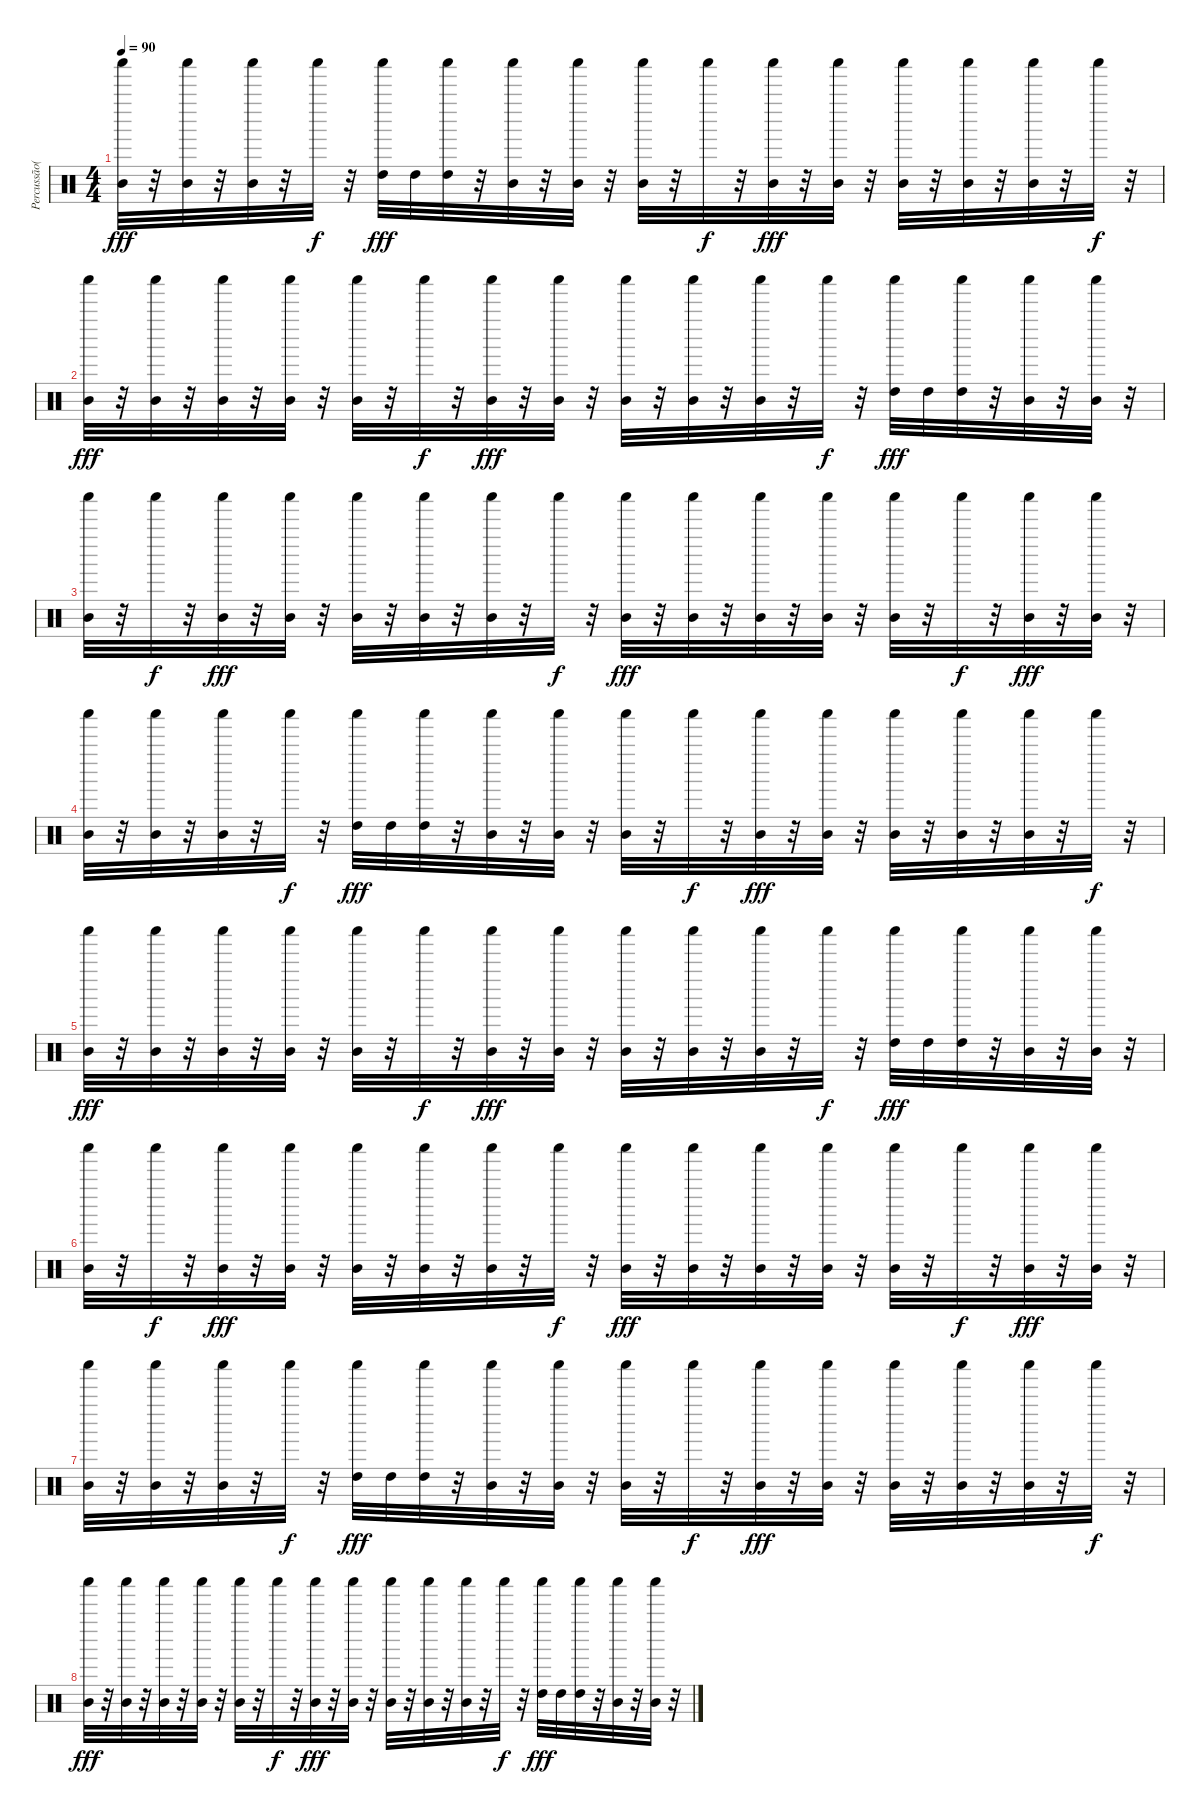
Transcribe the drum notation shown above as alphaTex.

\track ("Percussão(Percussion)-1" "Percussão(") {instrument percussion}
\staff {score}
\articulation defaults
\ts (4 4)
\tempo 90
\clef neutral
\ks c
("Mid Tom (hit)" "Shaker (hit)").32{dy fff} r.32 ("Mid Tom (hit)" "Shaker (hit)").32 r.32 ("Mid Tom (hit)" "Shaker (hit)").32 r.32 "Shaker (hit)".32{dy f} r.32 ("High Tom (hit)" "Shaker (hit)").32{dy fff} "High Tom (hit)".32 ("High Tom (hit)" "Shaker (hit)").32 r.32 ("Mid Tom (hit)" "Shaker (hit)").32 r.32 ("Mid Tom (hit)" "Shaker (hit)").32 r.32 ("Mid Tom (hit)" "Shaker (hit)").32 r.32 "Shaker (hit)".32{dy f} r.32 ("Mid Tom (hit)" "Shaker (hit)").32{dy fff} r.32 ("Mid Tom (hit)" "Shaker (hit)").32 r.32 ("Mid Tom (hit)" "Shaker (hit)").32 r.32 ("Mid Tom (hit)" "Shaker (hit)").32 r.32 ("Mid Tom (hit)" "Shaker (hit)").32 r.32 "Shaker (hit)".32{dy f} r.32 |
("Mid Tom (hit)" "Shaker (hit)").32{dy fff} r.32 ("Mid Tom (hit)" "Shaker (hit)").32 r.32 ("Mid Tom (hit)" "Shaker (hit)").32 r.32 ("Mid Tom (hit)" "Shaker (hit)").32 r.32 ("Mid Tom (hit)" "Shaker (hit)").32 r.32 "Shaker (hit)".32{dy f} r.32 ("Mid Tom (hit)" "Shaker (hit)").32{dy fff} r.32 ("Mid Tom (hit)" "Shaker (hit)").32 r.32 ("Mid Tom (hit)" "Shaker (hit)").32 r.32 ("Mid Tom (hit)" "Shaker (hit)").32 r.32 ("Mid Tom (hit)" "Shaker (hit)").32 r.32 "Shaker (hit)".32{dy f} r.32 ("High Tom (hit)" "Shaker (hit)").32{dy fff} "High Tom (hit)".32 ("High Tom (hit)" "Shaker (hit)").32 r.32 ("Mid Tom (hit)" "Shaker (hit)").32 r.32 ("Mid Tom (hit)" "Shaker (hit)").32 r.32 |
("Mid Tom (hit)" "Shaker (hit)").32 r.32 "Shaker (hit)".32{dy f} r.32 ("Mid Tom (hit)" "Shaker (hit)").32{dy fff} r.32 ("Mid Tom (hit)" "Shaker (hit)").32 r.32 ("Mid Tom (hit)" "Shaker (hit)").32 r.32 ("Mid Tom (hit)" "Shaker (hit)").32 r.32 ("Mid Tom (hit)" "Shaker (hit)").32 r.32 "Shaker (hit)".32{dy f} r.32 ("Mid Tom (hit)" "Shaker (hit)").32{dy fff} r.32 ("Mid Tom (hit)" "Shaker (hit)").32 r.32 ("Mid Tom (hit)" "Shaker (hit)").32 r.32 ("Mid Tom (hit)" "Shaker (hit)").32 r.32 ("Mid Tom (hit)" "Shaker (hit)").32 r.32 "Shaker (hit)".32{dy f} r.32 ("Mid Tom (hit)" "Shaker (hit)").32{dy fff} r.32 ("Mid Tom (hit)" "Shaker (hit)").32 r.32 |
("Mid Tom (hit)" "Shaker (hit)").32 r.32 ("Mid Tom (hit)" "Shaker (hit)").32 r.32 ("Mid Tom (hit)" "Shaker (hit)").32 r.32 "Shaker (hit)".32{dy f} r.32 ("High Tom (hit)" "Shaker (hit)").32{dy fff} "High Tom (hit)".32 ("High Tom (hit)" "Shaker (hit)").32 r.32 ("Mid Tom (hit)" "Shaker (hit)").32 r.32 ("Mid Tom (hit)" "Shaker (hit)").32 r.32 ("Mid Tom (hit)" "Shaker (hit)").32 r.32 "Shaker (hit)".32{dy f} r.32 ("Mid Tom (hit)" "Shaker (hit)").32{dy fff} r.32 ("Mid Tom (hit)" "Shaker (hit)").32 r.32 ("Mid Tom (hit)" "Shaker (hit)").32 r.32 ("Mid Tom (hit)" "Shaker (hit)").32 r.32 ("Mid Tom (hit)" "Shaker (hit)").32 r.32 "Shaker (hit)".32{dy f} r.32 |
("Mid Tom (hit)" "Shaker (hit)").32{dy fff} r.32 ("Mid Tom (hit)" "Shaker (hit)").32 r.32 ("Mid Tom (hit)" "Shaker (hit)").32 r.32 ("Mid Tom (hit)" "Shaker (hit)").32 r.32 ("Mid Tom (hit)" "Shaker (hit)").32 r.32 "Shaker (hit)".32{dy f} r.32 ("Mid Tom (hit)" "Shaker (hit)").32{dy fff} r.32 ("Mid Tom (hit)" "Shaker (hit)").32 r.32 ("Mid Tom (hit)" "Shaker (hit)").32 r.32 ("Mid Tom (hit)" "Shaker (hit)").32 r.32 ("Mid Tom (hit)" "Shaker (hit)").32 r.32 "Shaker (hit)".32{dy f} r.32 ("High Tom (hit)" "Shaker (hit)").32{dy fff} "High Tom (hit)".32 ("High Tom (hit)" "Shaker (hit)").32 r.32 ("Mid Tom (hit)" "Shaker (hit)").32 r.32 ("Mid Tom (hit)" "Shaker (hit)").32 r.32 |
("Mid Tom (hit)" "Shaker (hit)").32 r.32 "Shaker (hit)".32{dy f} r.32 ("Mid Tom (hit)" "Shaker (hit)").32{dy fff} r.32 ("Mid Tom (hit)" "Shaker (hit)").32 r.32 ("Mid Tom (hit)" "Shaker (hit)").32 r.32 ("Mid Tom (hit)" "Shaker (hit)").32 r.32 ("Mid Tom (hit)" "Shaker (hit)").32 r.32 "Shaker (hit)".32{dy f} r.32 ("Mid Tom (hit)" "Shaker (hit)").32{dy fff} r.32 ("Mid Tom (hit)" "Shaker (hit)").32 r.32 ("Mid Tom (hit)" "Shaker (hit)").32 r.32 ("Mid Tom (hit)" "Shaker (hit)").32 r.32 ("Mid Tom (hit)" "Shaker (hit)").32 r.32 "Shaker (hit)".32{dy f} r.32 ("Mid Tom (hit)" "Shaker (hit)").32{dy fff} r.32 ("Mid Tom (hit)" "Shaker (hit)").32 r.32 |
("Mid Tom (hit)" "Shaker (hit)").32 r.32 ("Mid Tom (hit)" "Shaker (hit)").32 r.32 ("Mid Tom (hit)" "Shaker (hit)").32 r.32 "Shaker (hit)".32{dy f} r.32 ("High Tom (hit)" "Shaker (hit)").32{dy fff} "High Tom (hit)".32 ("High Tom (hit)" "Shaker (hit)").32 r.32 ("Mid Tom (hit)" "Shaker (hit)").32 r.32 ("Mid Tom (hit)" "Shaker (hit)").32 r.32 ("Mid Tom (hit)" "Shaker (hit)").32 r.32 "Shaker (hit)".32{dy f} r.32 ("Mid Tom (hit)" "Shaker (hit)").32{dy fff} r.32 ("Mid Tom (hit)" "Shaker (hit)").32 r.32 ("Mid Tom (hit)" "Shaker (hit)").32 r.32 ("Mid Tom (hit)" "Shaker (hit)").32 r.32 ("Mid Tom (hit)" "Shaker (hit)").32 r.32 "Shaker (hit)".32{dy f} r.32 |
("Mid Tom (hit)" "Shaker (hit)").32{dy fff} r.32 ("Mid Tom (hit)" "Shaker (hit)").32 r.32 ("Mid Tom (hit)" "Shaker (hit)").32 r.32 ("Mid Tom (hit)" "Shaker (hit)").32 r.32 ("Mid Tom (hit)" "Shaker (hit)").32 r.32 "Shaker (hit)".32{dy f} r.32 ("Mid Tom (hit)" "Shaker (hit)").32{dy fff} r.32 ("Mid Tom (hit)" "Shaker (hit)").32 r.32 ("Mid Tom (hit)" "Shaker (hit)").32 r.32 ("Mid Tom (hit)" "Shaker (hit)").32 r.32 ("Mid Tom (hit)" "Shaker (hit)").32 r.32 "Shaker (hit)".32{dy f} r.32 ("High Tom (hit)" "Shaker (hit)").32{dy fff} "High Tom (hit)".32 ("High Tom (hit)" "Shaker (hit)").32 r.32 ("Mid Tom (hit)" "Shaker (hit)").32 r.32 ("Mid Tom (hit)" "Shaker (hit)").32 r.32
